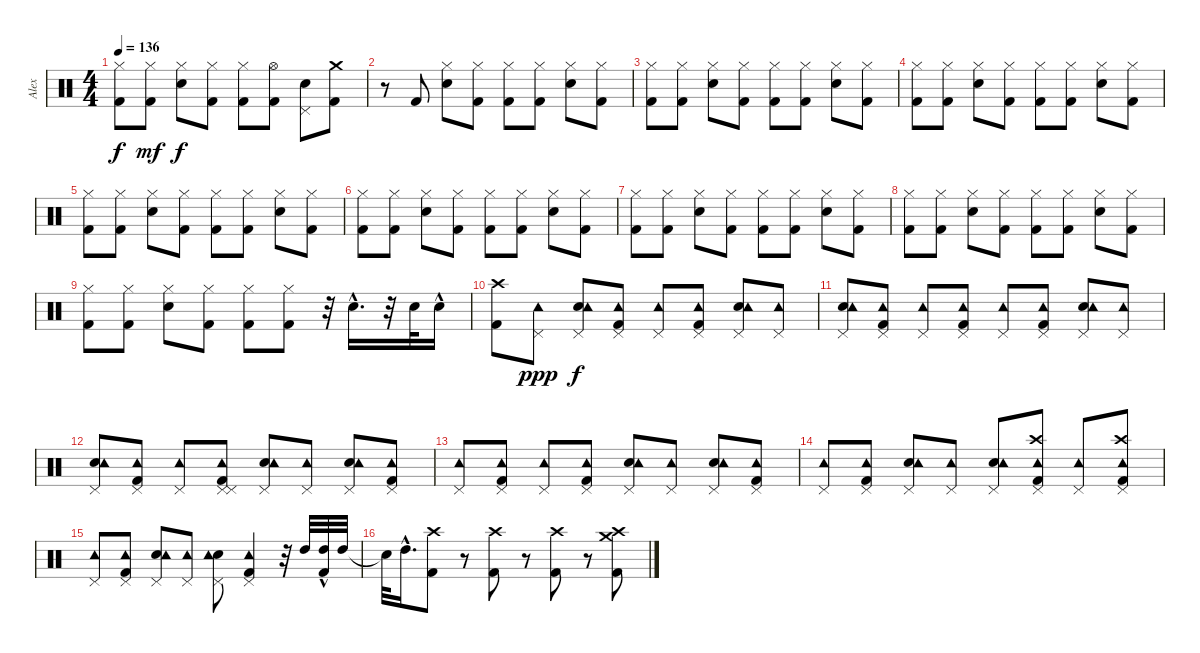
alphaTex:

\track ("Alex" "Alex") {instrument percussion}
\staff {score}
\articulation defaults
\ts (4 4)
\tempo 136
\clef neutral
\ks c
("Kick (hit) 2" "Hi-Hat (closed)").8{dy f} ("Hi-Hat (closed)" "Kick (hit) 2").8{dy mf} ("Hi-Hat (closed)" "Snare (hit) 2").8{dy f} ("Kick (hit) 2" "Hi-Hat (closed)").8 ("Kick (hit) 2" "Hi-Hat (closed)").8 ("Kick (hit) 2" "Hi-Hat (open)").8 ("Snare (hit) 2" "Pedal Hi-Hat (hit)").8 ("Crash medium (hit)" "Kick (hit) 2").8 |
r.8 "Kick (hit) 2".8 ("Snare (hit) 2" "Hi-Hat (closed)").8 ("Kick (hit) 2" "Hi-Hat (closed)").8 ("Kick (hit) 2" "Hi-Hat (closed)").8 ("Kick (hit) 2" "Hi-Hat (closed)").8 ("Snare (hit) 2" "Hi-Hat (closed)").8 ("Kick (hit) 2" "Hi-Hat (closed)").8 |
("Kick (hit) 2" "Hi-Hat (closed)").8 ("Hi-Hat (closed)" "Kick (hit) 2").8 ("Snare (hit) 2" "Hi-Hat (closed)").8 ("Kick (hit) 2" "Hi-Hat (closed)").8 ("Kick (hit) 2" "Hi-Hat (closed)").8 ("Hi-Hat (closed)" "Kick (hit) 2").8 ("Snare (hit) 2" "Hi-Hat (closed)").8 ("Kick (hit) 2" "Hi-Hat (closed)").8 |
("Kick (hit) 2" "Hi-Hat (closed)").8 ("Kick (hit) 2" "Hi-Hat (closed)").8 ("Snare (hit) 2" "Hi-Hat (closed)").8 ("Kick (hit) 2" "Hi-Hat (closed)").8 ("Kick (hit) 2" "Hi-Hat (closed)").8 ("Kick (hit) 2" "Hi-Hat (closed)").8 ("Snare (hit) 2" "Hi-Hat (closed)").8 ("Kick (hit) 2" "Hi-Hat (closed)").8 |
("Kick (hit) 2" "Hi-Hat (closed)").8 ("Hi-Hat (closed)" "Kick (hit) 2").8 ("Snare (hit) 2" "Hi-Hat (closed)").8 ("Kick (hit) 2" "Hi-Hat (closed)").8 ("Kick (hit) 2" "Hi-Hat (closed)").8 ("Hi-Hat (closed)" "Kick (hit) 2").8 ("Snare (hit) 2" "Hi-Hat (closed)").8 ("Kick (hit) 2" "Hi-Hat (closed)").8 |
("Kick (hit) 2" "Hi-Hat (closed)").8 ("Kick (hit) 2" "Hi-Hat (closed)").8 ("Hi-Hat (closed)" "Snare (hit) 2").8 ("Kick (hit) 2" "Hi-Hat (closed)").8 ("Kick (hit) 2" "Hi-Hat (closed)").8 ("Kick (hit) 2" "Hi-Hat (closed)").8 ("Hi-Hat (closed)" "Snare (hit) 2").8 ("Kick (hit) 2" "Hi-Hat (closed)").8 |
("Kick (hit) 2" "Hi-Hat (closed)").8 ("Kick (hit) 2" "Hi-Hat (closed)").8 ("Snare (hit) 2" "Hi-Hat (closed)").8 ("Kick (hit) 2" "Hi-Hat (closed)").8 ("Kick (hit) 2" "Hi-Hat (closed)").8 ("Kick (hit) 2" "Hi-Hat (closed)").8 ("Snare (hit) 2" "Hi-Hat (closed)").8 ("Kick (hit) 2" "Hi-Hat (closed)").8 |
("Kick (hit) 2" "Hi-Hat (closed)").8 ("Hi-Hat (closed)" "Kick (hit) 2").8 ("Snare (hit) 2" "Hi-Hat (closed)").8 ("Kick (hit) 2" "Hi-Hat (closed)").8 ("Kick (hit) 2" "Hi-Hat (closed)").8 ("Kick (hit) 2" "Hi-Hat (closed)").8 ("Snare (hit) 2" "Hi-Hat (closed)").8 ("Kick (hit) 2" "Hi-Hat (closed)").8 |
("Kick (hit) 2" "Hi-Hat (closed)").8 ("Kick (hit) 2" "Hi-Hat (closed)").8 ("Hi-Hat (closed)" "Snare (hit) 2").8 ("Kick (hit) 2" "Hi-Hat (closed)").8 ("Kick (hit) 2" "Hi-Hat (closed)").8 ("Kick (hit) 2" "Hi-Hat (closed)").8 r.32 "Snare (hit) 2"{hac}.16{d} r.32 "Snare (hit) 2".32 "Snare (hit) 2"{hac}.16 |
("Crash high (hit)" "Kick (hit) 2").8 ("Pedal Hi-Hat (hit)" "Tambourine (hit)").8{dy ppp} ("Pedal Hi-Hat (hit)" "Snare (hit) 2" "Tambourine (hit)").8{dy f} ("Pedal Hi-Hat (hit)" "Kick (hit) 2" "Tambourine (hit)").8 ("Pedal Hi-Hat (hit)" "Tambourine (hit)").8 ("Pedal Hi-Hat (hit)" "Kick (hit) 2" "Tambourine (hit)").8 ("Snare (hit) 2" "Pedal Hi-Hat (hit)" "Tambourine (hit)").8 ("Pedal Hi-Hat (hit)" "Tambourine (hit)").8 |
("Snare (hit) 2" "Pedal Hi-Hat (hit)" "Tambourine (hit)").8 ("Pedal Hi-Hat (hit)" "Kick (hit) 2" "Tambourine (hit)").8 ("Pedal Hi-Hat (hit)" "Tambourine (hit)").8 ("Pedal Hi-Hat (hit)" "Kick (hit) 2" "Tambourine (hit)").8 ("Pedal Hi-Hat (hit)" "Tambourine (hit)").8 ("Pedal Hi-Hat (hit)" "Kick (hit) 2" "Tambourine (hit)").8 ("Pedal Hi-Hat (hit)" "Snare (hit) 2" "Tambourine (hit)").8 ("Pedal Hi-Hat (hit)" "Tambourine (hit)").8 |
("Pedal Hi-Hat (hit)" "Snare (hit) 2" "Tambourine (hit)").8 ("Pedal Hi-Hat (hit)" "Kick (hit) 2" "Tambourine (hit)").8 ("Pedal Hi-Hat (hit)" "Tambourine (hit)").8 ("Pedal Hi-Hat (hit)" "Kick (hit) 2" "Pedal Hi-Hat (hit)" "Tambourine (hit)").8 ("Snare (hit) 2" "Pedal Hi-Hat (hit)" "Tambourine (hit)").8 ("Pedal Hi-Hat (hit)" "Tambourine (hit)").8 ("Snare (hit) 2" "Pedal Hi-Hat (hit)" "Tambourine (hit)").8 ("Kick (hit) 2" "Pedal Hi-Hat (hit)" "Tambourine (hit)").8 |
("Pedal Hi-Hat (hit)" "Tambourine (hit)").8 ("Pedal Hi-Hat (hit)" "Kick (hit) 2" "Tambourine (hit)").8 ("Pedal Hi-Hat (hit)" "Tambourine (hit)").8 ("Pedal Hi-Hat (hit)" "Kick (hit) 2" "Tambourine (hit)").8 ("Pedal Hi-Hat (hit)" "Snare (hit) 2" "Tambourine (hit)").8 ("Pedal Hi-Hat (hit)" "Tambourine (hit)").8 ("Pedal Hi-Hat (hit)" "Snare (hit) 2" "Tambourine (hit)").8 ("Pedal Hi-Hat (hit)" "Kick (hit) 2" "Tambourine (hit)").8 |
("Pedal Hi-Hat (hit)" "Tambourine (hit)").8 ("Kick (hit) 2" "Pedal Hi-Hat (hit)" "Tambourine (hit)").8 ("Snare (hit) 2" "Pedal Hi-Hat (hit)" "Tambourine (hit)").8 ("Pedal Hi-Hat (hit)" "Tambourine (hit)").8 ("Pedal Hi-Hat (hit)" "Snare (hit) 2" "Tambourine (hit)").8 ("Crash high (hit)" "Pedal Hi-Hat (hit)" "Kick (hit) 2" "Tambourine (hit)").8 ("Pedal Hi-Hat (hit)" "Tambourine (hit)").8 ("Crash high (hit)" "Pedal Hi-Hat (hit)" "Kick (hit) 2" "Tambourine (hit)").8 |
("Pedal Hi-Hat (hit)" "Tambourine (hit)").8 ("Pedal Hi-Hat (hit)" "Kick (hit) 2" "Tambourine (hit)").8 ("Pedal Hi-Hat (hit)" "Snare (hit) 2" "Tambourine (hit)").8 ("Pedal Hi-Hat (hit)" "Tambourine (hit)").8 ("Pedal Hi-Hat (hit)" "Snare (hit) 2" "Tambourine (hit)").8 ("Kick (hit) 2" "Pedal Hi-Hat (hit)" "Tambourine (hit)").4 r.32 "High Tom (hit)".32 ("Kick (hit) 2"{hac} "High Tom (hit)").32 "High Tom (hit)".32 |
"Snare (hit)"{t}.32 "High Tom (hit)"{hac}.16{d} ("Kick (hit) 2" "Crash high (hit)").8 r.8 ("Crash high (hit)" "Kick (hit) 2").8 r.8 ("Crash high (hit)" "Kick (hit) 2").8 r.8 ("Crash medium (hit)" "Crash high (hit)" "Kick (hit) 2").8
